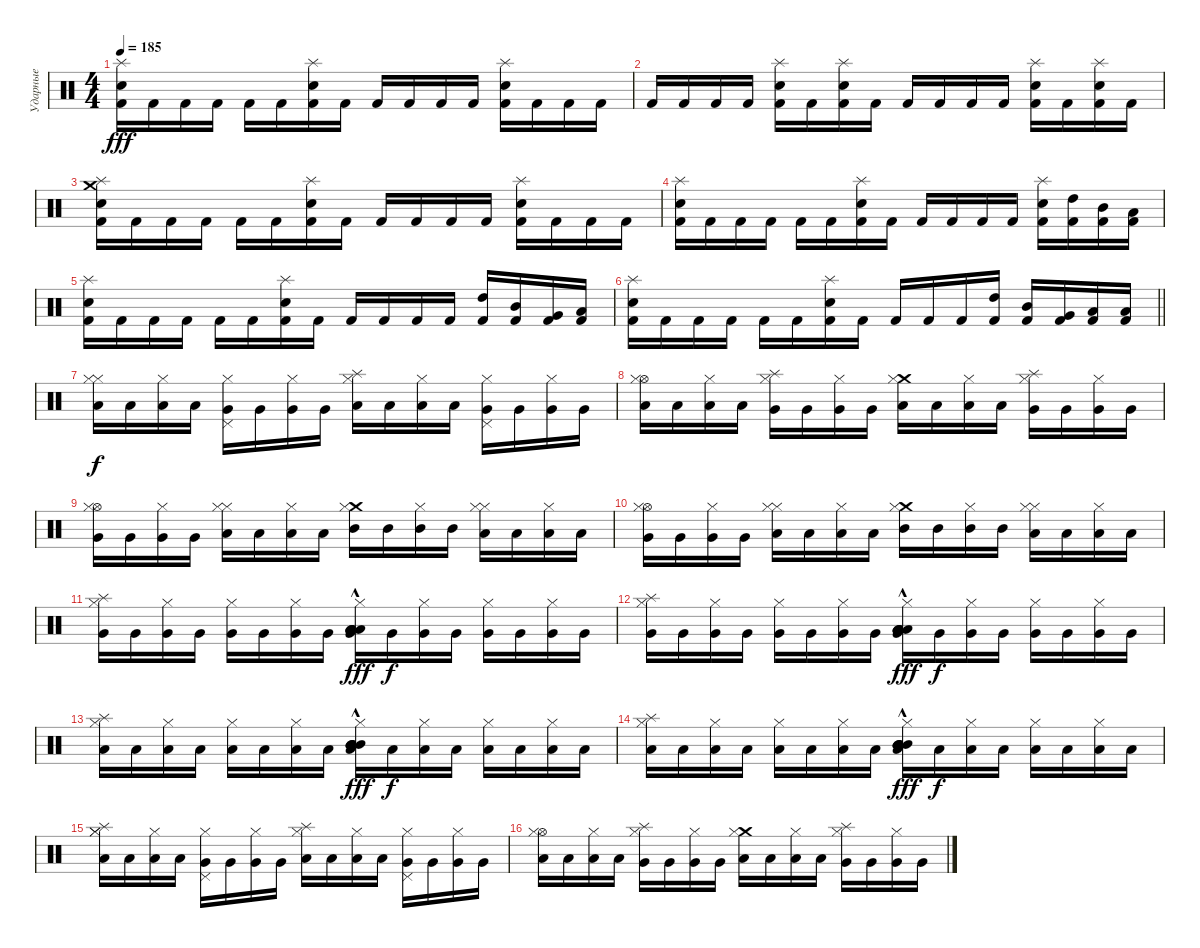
\track ("Ударные" "Ударные") {instrument percussion}
\staff {score}
\articulation defaults
\ts (4 4)
\tempo 185
\clef neutral
\ks c
("Splash (hit)" "Electric Snare (hit)" "Kick (hit) 2").16{dy fff} "Kick (hit) 2".16 "Kick (hit) 2".16 "Kick (hit) 2".16 "Kick (hit) 2".16 "Kick (hit) 2".16 ("Splash (hit)" "Electric Snare (hit)" "Kick (hit) 2").16 "Kick (hit) 2".16 "Kick (hit) 2".16 "Kick (hit) 2".16 "Kick (hit) 2".16 "Kick (hit) 2".16 ("Splash (hit)" "Electric Snare (hit)" "Kick (hit) 2").16 "Kick (hit) 2".16 "Kick (hit) 2".16 "Kick (hit) 2".16 |
"Kick (hit) 2".16 "Kick (hit) 2".16 "Kick (hit) 2".16 "Kick (hit) 2".16 ("Splash (hit)" "Electric Snare (hit)" "Kick (hit) 2").16 "Kick (hit) 2".16 ("Splash (hit)" "Electric Snare (hit)" "Kick (hit) 2").16 "Kick (hit) 2".16 "Kick (hit) 2".16 "Kick (hit) 2".16 "Kick (hit) 2".16 "Kick (hit) 2".16 ("Splash (hit)" "Electric Snare (hit)" "Kick (hit) 2").16 "Kick (hit) 2".16 ("Splash (hit)" "Electric Snare (hit)" "Kick (hit) 2").16 "Kick (hit) 2".16 |
("Crash medium (hit)" "Splash (hit)" "Electric Snare (hit)" "Kick (hit) 2").16 "Kick (hit) 2".16 "Kick (hit) 2".16 "Kick (hit) 2".16 "Kick (hit) 2".16 "Kick (hit) 2".16 ("Splash (hit)" "Electric Snare (hit)" "Kick (hit) 2").16 "Kick (hit) 2".16 "Kick (hit) 2".16 "Kick (hit) 2".16 "Kick (hit) 2".16 "Kick (hit) 2".16 ("Splash (hit)" "Electric Snare (hit)" "Kick (hit) 2").16 "Kick (hit) 2".16 "Kick (hit) 2".16 "Kick (hit) 2".16 |
("Splash (hit)" "Electric Snare (hit)" "Kick (hit) 2").16 "Kick (hit) 2".16 "Kick (hit) 2".16 "Kick (hit) 2".16 "Kick (hit) 2".16 "Kick (hit) 2".16 ("Splash (hit)" "Electric Snare (hit)" "Kick (hit) 2").16 "Kick (hit) 2".16 "Kick (hit) 2".16 "Kick (hit) 2".16 "Kick (hit) 2".16 "Kick (hit) 2".16 ("Splash (hit)" "Electric Snare (hit)" "Kick (hit) 2").16 ("High Tom (hit)" "Kick (hit) 2").16 ("Mid Tom (hit)" "Kick (hit) 2").16 ("Low Tom (hit)" "Kick (hit) 2").16 |
("Splash (hit)" "Electric Snare (hit)" "Kick (hit) 2").16 "Kick (hit) 2".16 "Kick (hit) 2".16 "Kick (hit) 2".16 "Kick (hit) 2".16 "Kick (hit) 2".16 ("Splash (hit)" "Electric Snare (hit)" "Kick (hit) 2").16 "Kick (hit) 2".16 "Kick (hit) 2".16 "Kick (hit) 2".16 "Kick (hit) 2".16 "Kick (hit) 2".16 ("High Tom (hit)" "Kick (hit) 2").16 ("Mid Tom (hit)" "Kick (hit) 2").16 ("Very Low Tom (hit)" "Kick (hit) 2").16 ("Low Tom (hit)" "Kick (hit) 2").16 |
\barLineRight lightlight
("Splash (hit)" "Electric Snare (hit)" "Kick (hit) 2").16 "Kick (hit) 2".16 "Kick (hit) 2".16 "Kick (hit) 2".16 "Kick (hit) 2".16 "Kick (hit) 2".16 ("Splash (hit)" "Electric Snare (hit)" "Kick (hit) 2").16 "Kick (hit) 2".16 "Kick (hit) 2".16 "Kick (hit) 2".16 "Kick (hit) 2".16 ("High Tom (hit)" "Kick (hit) 2").16 ("Mid Tom (hit)" "Kick (hit) 2").16 ("Very Low Tom (hit)" "Kick (hit) 2").16 ("Low Tom (hit)" "Kick (hit) 2").16 ("Low Floor Tom (hit)" "Kick (hit) 2").16 |
("Hi-Hat (closed)" "Low Floor Tom (hit)" "Hi-Hat (closed)").16{dy f volume 7} "Low Floor Tom (hit)".16 ("Low Floor Tom (hit)" "Hi-Hat (closed)").16 "Low Floor Tom (hit)".16 ("Pedal Hi-Hat (hit)" "Very Low Tom (hit)" "Hi-Hat (closed)").16 "Very Low Tom (hit)".16 ("Very Low Tom (hit)" "Hi-Hat (closed)").16 "Very Low Tom (hit)".16 ("Splash (hit)" "Low Tom (hit)" "Hi-Hat (closed)").16 "Low Tom (hit)".16 ("Low Tom (hit)" "Hi-Hat (closed)").16 "Low Tom (hit)".16 ("Pedal Hi-Hat (hit)" "Very Low Tom (hit)" "Hi-Hat (closed)").16 "Very Low Tom (hit)".16 ("Very Low Tom (hit)" "Hi-Hat (closed)").16 "Very Low Tom (hit)".16 |
("Hi-Hat (open)" "Low Floor Tom (hit)" "Hi-Hat (closed)").16 "Low Floor Tom (hit)".16 ("Low Floor Tom (hit)" "Hi-Hat (closed)").16 "Low Floor Tom (hit)".16 ("Splash (hit)" "Very Low Tom (hit)" "Hi-Hat (closed)").16 "Very Low Tom (hit)".16 ("Very Low Tom (hit)" "Hi-Hat (closed)").16 "Very Low Tom (hit)".16 ("Crash medium (hit)" "Low Tom (hit)" "Hi-Hat (closed)").16 "Low Tom (hit)".16 ("Low Tom (hit)" "Hi-Hat (closed)").16 "Low Tom (hit)".16 ("Splash (hit)" "Very Low Tom (hit)" "Hi-Hat (closed)").16 "Very Low Tom (hit)".16 ("Very Low Tom (hit)" "Hi-Hat (closed)").16 "Very Low Tom (hit)".16 |
("Hi-Hat (open)" "Very Low Tom (hit)" "Hi-Hat (closed)").16 "Very Low Tom (hit)".16 ("Very Low Tom (hit)" "Hi-Hat (closed)").16 "Very Low Tom (hit)".16 ("Hi-Hat (closed)" "Low Tom (hit)" "Hi-Hat (closed)").16 "Low Tom (hit)".16 ("Low Tom (hit)" "Hi-Hat (closed)").16 "Low Tom (hit)".16 ("Crash medium (hit)" "Mid Tom (hit)" "Hi-Hat (closed)").16 "Mid Tom (hit)".16 ("Mid Tom (hit)" "Hi-Hat (closed)").16 "Mid Tom (hit)".16 ("Hi-Hat (closed)" "Low Tom (hit)" "Hi-Hat (closed)").16 "Low Tom (hit)".16 ("Low Tom (hit)" "Hi-Hat (closed)").16 "Low Tom (hit)".16 |
("Hi-Hat (open)" "Very Low Tom (hit)" "Hi-Hat (closed)").16 "Very Low Tom (hit)".16 ("Very Low Tom (hit)" "Hi-Hat (closed)").16 "Very Low Tom (hit)".16 ("Hi-Hat (closed)" "Low Tom (hit)" "Hi-Hat (closed)").16 "Low Tom (hit)".16 ("Low Tom (hit)" "Hi-Hat (closed)").16 "Low Tom (hit)".16 ("Crash medium (hit)" "Mid Tom (hit)" "Hi-Hat (closed)").16 "Mid Tom (hit)".16 ("Mid Tom (hit)" "Hi-Hat (closed)").16 "Mid Tom (hit)".16 ("Hi-Hat (closed)" "Low Tom (hit)" "Hi-Hat (closed)").16 "Low Tom (hit)".16 ("Low Tom (hit)" "Hi-Hat (closed)").16 "Low Tom (hit)".16 |
("Splash (hit)" "Very Low Tom (hit)" "Hi-Hat (closed)").16 "Very Low Tom (hit)".16 ("Very Low Tom (hit)" "Hi-Hat (closed)").16 "Very Low Tom (hit)".16 ("Very Low Tom (hit)" "Hi-Hat (closed)").16 "Very Low Tom (hit)".16 ("Very Low Tom (hit)" "Hi-Hat (closed)").16 "Very Low Tom (hit)".16 ("Low Tom (hit)"{hac} "Low Tom (hit)" "Low Tom (hit)" "Very Low Tom (hit)" "Hi-Hat (closed)" "Low Tom (hit)").16{dy fff} "Very Low Tom (hit)".16{dy f} ("Very Low Tom (hit)" "Hi-Hat (closed)").16 "Very Low Tom (hit)".16 ("Very Low Tom (hit)" "Hi-Hat (closed)").16 "Very Low Tom (hit)".16 ("Very Low Tom (hit)" "Hi-Hat (closed)").16 "Very Low Tom (hit)".16 |
("Splash (hit)" "Very Low Tom (hit)" "Hi-Hat (closed)").16 "Very Low Tom (hit)".16 ("Very Low Tom (hit)" "Hi-Hat (closed)").16 "Very Low Tom (hit)".16 ("Very Low Tom (hit)" "Hi-Hat (closed)").16 "Very Low Tom (hit)".16 ("Very Low Tom (hit)" "Hi-Hat (closed)").16 "Very Low Tom (hit)".16 ("Low Tom (hit)"{hac} "Low Tom (hit)" "Low Tom (hit)" "Very Low Tom (hit)" "Hi-Hat (closed)" "Low Tom (hit)").16{dy fff} "Very Low Tom (hit)".16{dy f} ("Very Low Tom (hit)" "Hi-Hat (closed)").16 "Very Low Tom (hit)".16 ("Very Low Tom (hit)" "Hi-Hat (closed)").16 "Very Low Tom (hit)".16 ("Very Low Tom (hit)" "Hi-Hat (closed)").16 "Very Low Tom (hit)".16 |
("Splash (hit)" "Low Floor Tom (hit)" "Hi-Hat (closed)").16 "Low Floor Tom (hit)".16 ("Low Floor Tom (hit)" "Hi-Hat (closed)").16 "Low Floor Tom (hit)".16 ("Low Floor Tom (hit)" "Hi-Hat (closed)").16 "Low Floor Tom (hit)".16 ("Low Floor Tom (hit)" "Hi-Hat (closed)").16 "Low Floor Tom (hit)".16 ("Mid Tom (hit)" "Mid Tom (hit)" "Mid Tom (hit)" "Low Floor Tom (hit)" "Hi-Hat (closed)" "Mid Tom (hit)"{hac}).16{dy fff} "Low Floor Tom (hit)".16{dy f} ("Low Floor Tom (hit)" "Hi-Hat (closed)").16 "Low Floor Tom (hit)".16 ("Low Floor Tom (hit)" "Hi-Hat (closed)").16 "Low Floor Tom (hit)".16 ("Low Floor Tom (hit)" "Hi-Hat (closed)").16 "Low Floor Tom (hit)".16 |
("Splash (hit)" "Low Floor Tom (hit)" "Hi-Hat (closed)").16 "Low Floor Tom (hit)".16 ("Low Floor Tom (hit)" "Hi-Hat (closed)").16 "Low Floor Tom (hit)".16 ("Low Floor Tom (hit)" "Hi-Hat (closed)").16 "Low Floor Tom (hit)".16 ("Low Floor Tom (hit)" "Hi-Hat (closed)").16 "Low Floor Tom (hit)".16 ("Mid Tom (hit)" "Mid Tom (hit)" "Mid Tom (hit)" "Low Floor Tom (hit)" "Hi-Hat (closed)" "Mid Tom (hit)"{hac}).16{dy fff} "Low Floor Tom (hit)".16{dy f} ("Low Floor Tom (hit)" "Hi-Hat (closed)").16 "Low Floor Tom (hit)".16 ("Low Floor Tom (hit)" "Hi-Hat (closed)").16 "Low Floor Tom (hit)".16 ("Low Floor Tom (hit)" "Hi-Hat (closed)").16 "Low Floor Tom (hit)".16 |
("Splash (hit)" "Hi-Hat (closed)" "Low Floor Tom (hit)" "Hi-Hat (closed)").16 "Low Floor Tom (hit)".16 ("Low Floor Tom (hit)" "Hi-Hat (closed)").16 "Low Floor Tom (hit)".16 ("Pedal Hi-Hat (hit)" "Very Low Tom (hit)" "Hi-Hat (closed)").16 "Very Low Tom (hit)".16 ("Very Low Tom (hit)" "Hi-Hat (closed)").16 "Very Low Tom (hit)".16 ("Splash (hit)" "Low Tom (hit)" "Hi-Hat (closed)").16 "Low Tom (hit)".16 ("Low Tom (hit)" "Hi-Hat (closed)").16 "Low Tom (hit)".16 ("Pedal Hi-Hat (hit)" "Very Low Tom (hit)" "Hi-Hat (closed)").16 "Very Low Tom (hit)".16 ("Very Low Tom (hit)" "Hi-Hat (closed)").16 "Very Low Tom (hit)".16 |
("Hi-Hat (open)" "Low Floor Tom (hit)" "Hi-Hat (closed)").16 "Low Floor Tom (hit)".16 ("Low Floor Tom (hit)" "Hi-Hat (closed)").16 "Low Floor Tom (hit)".16 ("Splash (hit)" "Very Low Tom (hit)" "Hi-Hat (closed)").16 "Very Low Tom (hit)".16 ("Very Low Tom (hit)" "Hi-Hat (closed)").16 "Very Low Tom (hit)".16 ("Crash medium (hit)" "Low Tom (hit)" "Hi-Hat (closed)").16 "Low Tom (hit)".16 ("Low Tom (hit)" "Hi-Hat (closed)").16 "Low Tom (hit)".16 ("Splash (hit)" "Very Low Tom (hit)" "Hi-Hat (closed)").16 "Very Low Tom (hit)".16 ("Very Low Tom (hit)" "Hi-Hat (closed)").16 "Very Low Tom (hit)".16
